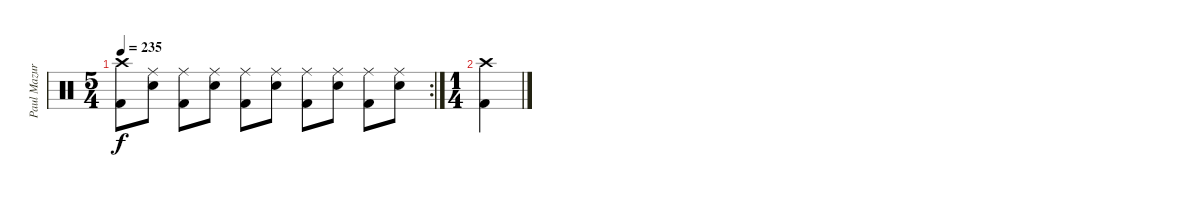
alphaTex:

\track ("Paul Mazurkiewicz" "Paul Mazur") {instrument percussion}
\staff {score}
\articulation defaults
\rc 2
\ts (5 4)
\tempo 235
\clef neutral
\ks c
("Crash high (hit)" "Kick (hit) 2").8{dy f} ("Ride (middle)" "Electric Snare (hit)").8 ("Ride (middle)" "Kick (hit) 2").8 ("Ride (middle)" "Electric Snare (hit)").8 ("Ride (middle)" "Kick (hit) 2").8 ("Ride (middle)" "Electric Snare (hit)").8 ("Ride (middle)" "Kick (hit) 2").8 ("Ride (middle)" "Electric Snare (hit)").8 ("Ride (middle)" "Kick (hit) 2").8 ("Ride (middle)" "Electric Snare (hit)").8 |
\ts (1 4)
("Crash high (hit)" "Kick (hit) 2").4
